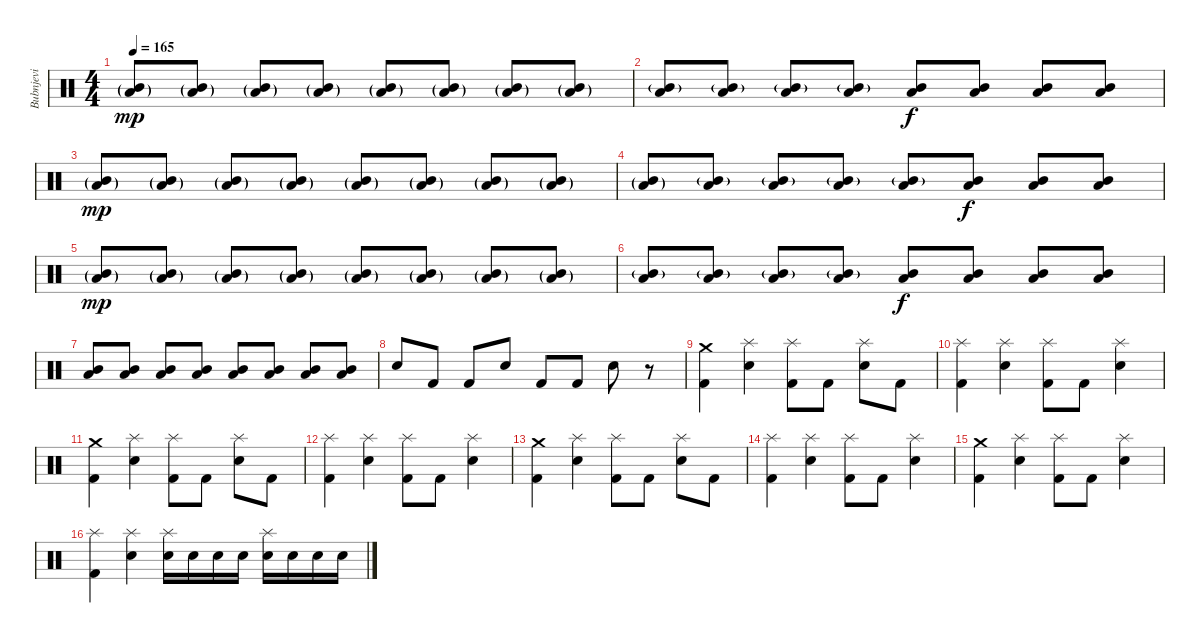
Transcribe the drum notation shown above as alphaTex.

\track ("Bubnjevi" "Bubnjevi") {instrument percussion}
\staff {score}
\articulation defaults
\ts (4 4)
\tempo 165
\clef neutral
\ks c
("Mid Tom (hit)"{g} "Low Tom (hit)"{g}).8{dy mp} ("Mid Tom (hit)"{g} "Low Tom (hit)"{g}).8 ("Mid Tom (hit)"{g} "Low Tom (hit)"{g}).8 ("Mid Tom (hit)"{g} "Low Tom (hit)"{g}).8 ("Mid Tom (hit)"{g} "Low Tom (hit)"{g}).8 ("Mid Tom (hit)"{g} "Low Tom (hit)"{g}).8 ("Mid Tom (hit)"{g} "Low Tom (hit)"{g}).8 ("Mid Tom (hit)"{g} "Low Tom (hit)"{g}).8 |
("Mid Tom (hit)"{g} "Low Tom (hit)").8 ("Mid Tom (hit)"{g} "Low Tom (hit)").8 ("Mid Tom (hit)"{g} "Low Tom (hit)").8 ("Mid Tom (hit)"{g} "Low Tom (hit)").8 ("Mid Tom (hit)" "Low Tom (hit)").8{dy f} ("Mid Tom (hit)" "Low Tom (hit)").8 ("Mid Tom (hit)" "Low Tom (hit)").8 ("Mid Tom (hit)" "Low Tom (hit)").8 |
("Mid Tom (hit)"{g} "Low Tom (hit)"{g}).8{dy mp} ("Mid Tom (hit)"{g} "Low Tom (hit)"{g}).8 ("Mid Tom (hit)"{g} "Low Tom (hit)"{g}).8 ("Mid Tom (hit)"{g} "Low Tom (hit)"{g}).8 ("Mid Tom (hit)"{g} "Low Tom (hit)"{g}).8 ("Mid Tom (hit)"{g} "Low Tom (hit)"{g}).8 ("Mid Tom (hit)"{g} "Low Tom (hit)"{g}).8 ("Mid Tom (hit)"{g} "Low Tom (hit)"{g}).8 |
("Mid Tom (hit)"{g} "Low Tom (hit)"{g}).8 ("Mid Tom (hit)"{g} "Low Tom (hit)").8 ("Mid Tom (hit)"{g} "Low Tom (hit)").8 ("Mid Tom (hit)"{g} "Low Tom (hit)").8 ("Mid Tom (hit)"{g} "Low Tom (hit)").8 ("Mid Tom (hit)" "Low Tom (hit)").8{dy f} ("Mid Tom (hit)" "Low Tom (hit)").8 ("Mid Tom (hit)" "Low Tom (hit)").8 |
("Mid Tom (hit)"{g} "Low Tom (hit)"{g}).8{dy mp} ("Mid Tom (hit)"{g} "Low Tom (hit)"{g}).8 ("Mid Tom (hit)"{g} "Low Tom (hit)"{g}).8 ("Mid Tom (hit)"{g} "Low Tom (hit)"{g}).8 ("Mid Tom (hit)"{g} "Low Tom (hit)"{g}).8 ("Mid Tom (hit)"{g} "Low Tom (hit)"{g}).8 ("Mid Tom (hit)"{g} "Low Tom (hit)"{g}).8 ("Mid Tom (hit)"{g} "Low Tom (hit)"{g}).8 |
("Mid Tom (hit)"{g} "Low Tom (hit)").8 ("Mid Tom (hit)"{g} "Low Tom (hit)").8 ("Mid Tom (hit)"{g} "Low Tom (hit)").8 ("Mid Tom (hit)"{g} "Low Tom (hit)").8 ("Mid Tom (hit)" "Low Tom (hit)").8{dy f} ("Mid Tom (hit)" "Low Tom (hit)").8 ("Mid Tom (hit)" "Low Tom (hit)").8 ("Mid Tom (hit)" "Low Tom (hit)").8 |
("Mid Tom (hit)" "Low Tom (hit)").8 ("Mid Tom (hit)" "Low Tom (hit)").8 ("Mid Tom (hit)" "Low Tom (hit)").8 ("Mid Tom (hit)" "Low Tom (hit)").8 ("Mid Tom (hit)" "Low Tom (hit)").8 ("Mid Tom (hit)" "Low Tom (hit)").8 ("Mid Tom (hit)" "Low Tom (hit)").8 ("Mid Tom (hit)" "Low Tom (hit)").8 |
"Electric Snare (hit)".8 "Kick (hit) 2".8 "Kick (hit) 2".8 "Electric Snare (hit)".8 "Kick (hit) 2".8 "Kick (hit) 2".8 "Electric Snare (hit)".8 r.8 |
("Crash medium (hit)" "Kick (hit) 2").4 ("Splash (hit)" "Electric Snare (hit)").4 ("Splash (hit)" "Kick (hit) 2").8 "Kick (hit) 2".8 ("Splash (hit)" "Electric Snare (hit)").8 "Kick (hit) 2".8 |
("Splash (hit)" "Kick (hit) 2").4 ("Splash (hit)" "Electric Snare (hit)").4 ("Splash (hit)" "Kick (hit) 2").8 "Kick (hit) 2".8 ("Splash (hit)" "Electric Snare (hit)").4 |
("Crash medium (hit)" "Kick (hit) 2").4 ("Splash (hit)" "Electric Snare (hit)").4 ("Splash (hit)" "Kick (hit) 2").8 "Kick (hit) 2".8 ("Splash (hit)" "Electric Snare (hit)").8 "Kick (hit) 2".8 |
("Splash (hit)" "Kick (hit) 2").4 ("Splash (hit)" "Electric Snare (hit)").4 ("Splash (hit)" "Kick (hit) 2").8 "Kick (hit) 2".8 ("Splash (hit)" "Electric Snare (hit)").4 |
("Crash medium (hit)" "Kick (hit) 2").4 ("Splash (hit)" "Electric Snare (hit)").4 ("Splash (hit)" "Kick (hit) 2").8 "Kick (hit) 2".8 ("Splash (hit)" "Electric Snare (hit)").8 "Kick (hit) 2".8 |
("Splash (hit)" "Kick (hit) 2").4 ("Splash (hit)" "Electric Snare (hit)").4 ("Splash (hit)" "Kick (hit) 2").8 "Kick (hit) 2".8 ("Splash (hit)" "Electric Snare (hit)").4 |
("Crash medium (hit)" "Kick (hit) 2").4 ("Splash (hit)" "Electric Snare (hit)").4 ("Splash (hit)" "Kick (hit) 2").8 "Kick (hit) 2".8 ("Splash (hit)" "Electric Snare (hit)").4 |
("Splash (hit)" "Kick (hit) 2").4 ("Splash (hit)" "Electric Snare (hit)").4 ("Splash (hit)" "Electric Snare (hit)").16 "Electric Snare (hit)".16 "Electric Snare (hit)".16 "Electric Snare (hit)".16 ("Splash (hit)" "Electric Snare (hit)").16 "Electric Snare (hit)".16 "Electric Snare (hit)".16 "Electric Snare (hit)".16
